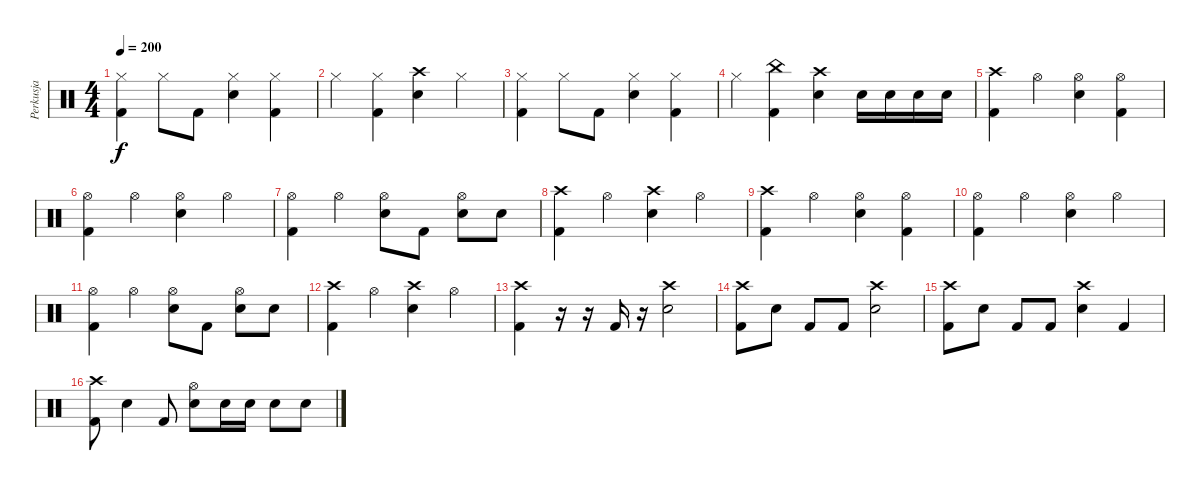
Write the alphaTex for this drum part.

\track ("Perkusja" "Perkusja") {instrument percussion}
\staff {score}
\articulation defaults
\ts (4 4)
\tempo 200
\clef neutral
\ks c
("Hi-Hat (closed)" "Kick (hit) 2").4{dy f} "Hi-Hat (closed)".8 "Kick (hit) 2".8 ("Hi-Hat (closed)" "Snare (hit) 2").4 ("Hi-Hat (closed)" "Kick (hit) 2").4 |
"Hi-Hat (closed)".4 ("Hi-Hat (closed)" "Kick (hit) 2").4 ("Crash high (hit)" "Snare (hit) 2").4 "Hi-Hat (closed)".4 |
("Hi-Hat (closed)" "Kick (hit) 2").4 "Hi-Hat (closed)".8 "Kick (hit) 2".8 ("Hi-Hat (closed)" "Snare (hit) 2").4 ("Hi-Hat (closed)" "Kick (hit) 2").4 |
"Hi-Hat (closed)".4 ("China (hit)" "Kick (hit) 2").4 ("Crash high (hit)" "Snare (hit) 2").4 "Electric Snare (hit)".16 "Electric Snare (hit)".16 "Electric Snare (hit)".16 "Electric Snare (hit)".16 |
("Crash high (hit)" "Kick (hit) 2").4 "Hi-Hat (open)".4 ("Hi-Hat (open)" "Snare (hit) 2").4 ("Hi-Hat (open)" "Kick (hit) 2").4 |
("Hi-Hat (open)" "Kick (hit) 2").4 "Hi-Hat (open)".4 ("Hi-Hat (open)" "Snare (hit) 2").4 "Hi-Hat (open)".4 |
("Hi-Hat (open)" "Kick (hit) 2").4 "Hi-Hat (open)".4 ("Hi-Hat (open)" "Snare (hit) 2").8 "Kick (hit) 2".8 ("Hi-Hat (open)" "Electric Snare (hit)").8 "Electric Snare (hit)".8 |
("Crash high (hit)" "Kick (hit) 2").4 "Hi-Hat (open)".4 ("Crash high (hit)" "Snare (hit) 2").4 "Hi-Hat (open)".4 |
("Crash high (hit)" "Kick (hit) 2").4 "Hi-Hat (open)".4 ("Hi-Hat (open)" "Snare (hit) 2").4 ("Hi-Hat (open)" "Kick (hit) 2").4 |
("Hi-Hat (open)" "Kick (hit) 2").4 "Hi-Hat (open)".4 ("Hi-Hat (open)" "Snare (hit) 2").4 "Hi-Hat (open)".4 |
("Hi-Hat (open)" "Kick (hit) 2").4 "Hi-Hat (open)".4 ("Hi-Hat (open)" "Snare (hit) 2").8 "Kick (hit) 2".8 ("Hi-Hat (open)" "Electric Snare (hit)").8 "Electric Snare (hit)".8 |
("Crash high (hit)" "Kick (hit) 2").4 "Hi-Hat (open)".4 ("Crash high (hit)" "Snare (hit) 2").4 "Hi-Hat (open)".4 |
("Crash high (hit)" "Kick (hit) 2").4 r.16 r.16 "Kick (hit) 2".16 r.16 ("Crash high (hit)" "Snare (hit) 2").2 |
("Crash high (hit)" "Kick (hit) 2").8 "Snare (hit) 2".8 "Kick (hit) 2".8 "Kick (hit) 2".8 ("Crash high (hit)" "Snare (hit) 2").2 |
("Crash high (hit)" "Kick (hit) 2").8 "Snare (hit) 2".8 "Kick (hit) 2".8 "Kick (hit) 2".8 ("Crash high (hit)" "Snare (hit) 2").4 "Kick (hit) 2".4 |
("Crash high (hit)" "Kick (hit) 2").8 "Snare (hit) 2".4 "Kick (hit) 2".8 ("Hi-Hat (open)" "Snare (hit) 2").8 "Electric Snare (hit)".16 "Electric Snare (hit)".16 "Electric Snare (hit)".8 "Electric Snare (hit)".8
